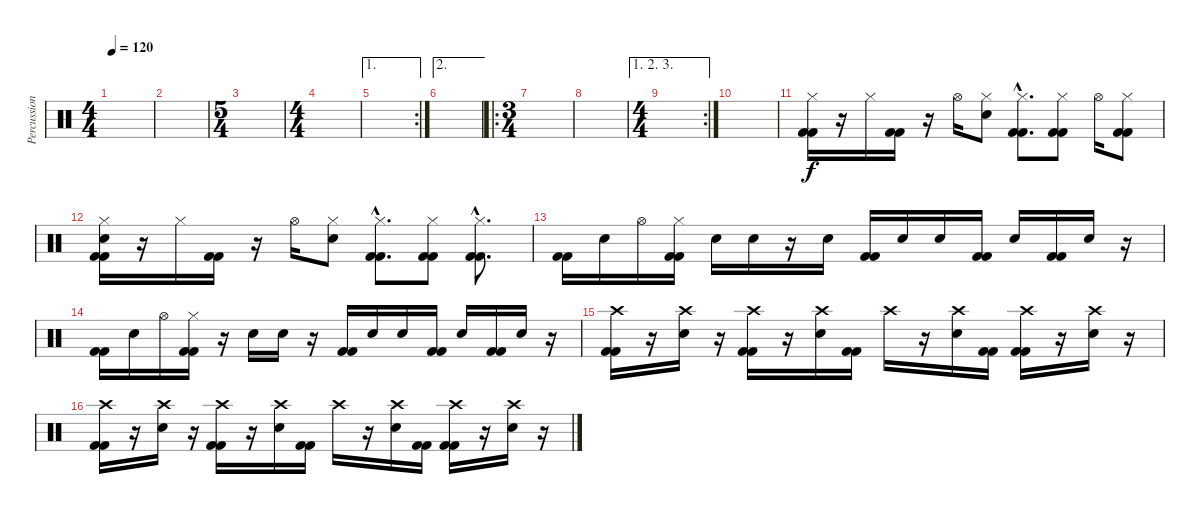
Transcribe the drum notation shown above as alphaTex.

\track ("Percussions" "Percussion") {instrument percussion}
\staff {score}
\articulation defaults
\ts (4 4)
\tempo 120
\clef neutral
\ks c
|
|
\ts (5 4)
|
\ts (4 4)
|
\ae 1
\rc 2
|
\ae 2
|
\ro
\ts (3 4)
|
|
\ae (1 2 3)
\rc 2
\ts (4 4)
|
|
("Kick (hit) 2" "Kick (hit) 2" "Hi-Hat (closed)").16 r.16 "Hi-Hat (closed)".16 ("Kick (hit) 2" "Kick (hit) 2").16 r.16 "Hi-Hat (open)".16 ("Electric Snare (hit)" "Hi-Hat (closed)").8 ("Kick (hit) 2"{hac} "Kick (hit) 2"{hac} "Hi-Hat (closed)"{hac}).8{d} ("Kick (hit) 2" "Kick (hit) 2" "Hi-Hat (closed)").8 "Hi-Hat (open)".16 ("Kick (hit) 2" "Kick (hit) 2" "Hi-Hat (closed)").8 |
("Kick (hit) 2" "Kick (hit) 2" "Electric Snare (hit)" "Hi-Hat (closed)").16 r.16 "Hi-Hat (closed)".16 ("Kick (hit) 2" "Kick (hit) 2").16 r.16 "Hi-Hat (open)".16 ("Electric Snare (hit)" "Hi-Hat (closed)").8 ("Kick (hit) 2"{hac} "Kick (hit) 2"{hac} "Hi-Hat (closed)"{hac}).8{d} ("Kick (hit) 2" "Kick (hit) 2" "Hi-Hat (closed)").8 ("Kick (hit) 2"{hac} "Kick (hit) 2"{hac} "Hi-Hat (closed)"{hac}).8{d} |
("Kick (hit) 2" "Kick (hit) 2").16 "Electric Snare (hit)".16 "Hi-Hat (open)".16 ("Kick (hit) 2" "Kick (hit) 2" "Hi-Hat (closed)").16 "Electric Snare (hit)".16 "Electric Snare (hit)".16 r.16 "Electric Snare (hit)".16 ("Kick (hit) 2" "Kick (hit) 2").16 "Electric Snare (hit)".16 "Electric Snare (hit)".16 ("Kick (hit) 2" "Kick (hit) 2").16 "Electric Snare (hit)".16 ("Kick (hit) 2" "Kick (hit) 2").16 "Electric Snare (hit)".16 r.16 |
("Kick (hit) 2" "Kick (hit) 2").16 "Electric Snare (hit)".16 "Hi-Hat (open)".16 ("Kick (hit) 2" "Kick (hit) 2" "Hi-Hat (closed)").16 r.16 "Electric Snare (hit)".16 "Electric Snare (hit)".16 r.16 ("Kick (hit) 2" "Kick (hit) 2").16 "Electric Snare (hit)".16 "Electric Snare (hit)".16 ("Kick (hit) 2" "Kick (hit) 2").16 "Electric Snare (hit)".16 ("Kick (hit) 2" "Kick (hit) 2").16 "Electric Snare (hit)".16 r.16 |
("Kick (hit) 2" "Kick (hit) 2" "Crash high (hit)").16 r.16 ("Electric Snare (hit)" "Crash high (hit)").16 r.16 ("Kick (hit) 2" "Kick (hit) 2" "Crash high (hit)").16 r.16 ("Electric Snare (hit)" "Crash high (hit)").16 ("Kick (hit) 2" "Kick (hit) 2").16 "Crash high (hit)".16 r.16 ("Electric Snare (hit)" "Crash high (hit)").16 ("Kick (hit) 2" "Kick (hit) 2").16 ("Kick (hit) 2" "Kick (hit) 2" "Crash high (hit)").16 r.16 ("Electric Snare (hit)" "Crash high (hit)").16 r.16 |
("Kick (hit) 2" "Kick (hit) 2" "Crash high (hit)").16 r.16 ("Electric Snare (hit)" "Crash high (hit)").16 r.16 ("Kick (hit) 2" "Kick (hit) 2" "Crash high (hit)").16 r.16 ("Electric Snare (hit)" "Crash high (hit)").16 ("Kick (hit) 2" "Kick (hit) 2").16 "Crash high (hit)".16 r.16 ("Electric Snare (hit)" "Crash high (hit)").16 ("Kick (hit) 2" "Kick (hit) 2").16 ("Kick (hit) 2" "Kick (hit) 2" "Crash high (hit)").16 r.16 ("Electric Snare (hit)" "Crash high (hit)").16 r.16
